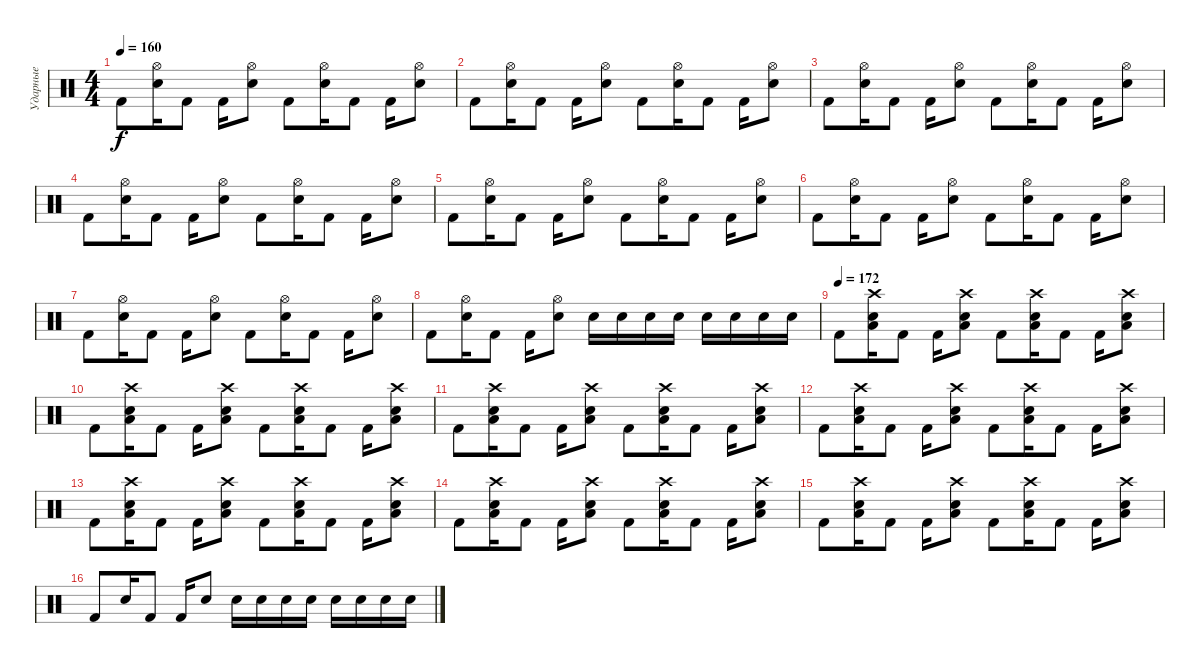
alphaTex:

\track ("Ударные" "Ударные") {instrument percussion}
\staff {score}
\articulation defaults
\ts (4 4)
\tempo 160
\clef neutral
\ks c "Kick (hit) 2".8{dy f}
("Hi-Hat (open)" "Electric Snare (hit)").16 "Kick (hit) 2".8 "Kick (hit) 2".16 ("Hi-Hat (open)" "Electric Snare (hit)").8 "Kick (hit) 2".8 ("Hi-Hat (open)" "Electric Snare (hit)").16 "Kick (hit) 2".8 "Kick (hit) 2".16 ("Hi-Hat (open)" "Electric Snare (hit)").8 |
"Kick (hit) 2".8 ("Hi-Hat (open)" "Electric Snare (hit)").16 "Kick (hit) 2".8 "Kick (hit) 2".16 ("Hi-Hat (open)" "Electric Snare (hit)").8 "Kick (hit) 2".8 ("Hi-Hat (open)" "Electric Snare (hit)").16 "Kick (hit) 2".8 "Kick (hit) 2".16 ("Hi-Hat (open)" "Electric Snare (hit)").8 |
"Kick (hit) 2".8 ("Hi-Hat (open)" "Electric Snare (hit)").16 "Kick (hit) 2".8 "Kick (hit) 2".16 ("Hi-Hat (open)" "Electric Snare (hit)").8 "Kick (hit) 2".8 ("Hi-Hat (open)" "Electric Snare (hit)").16 "Kick (hit) 2".8 "Kick (hit) 2".16 ("Hi-Hat (open)" "Electric Snare (hit)").8 |
"Kick (hit) 2".8 ("Hi-Hat (open)" "Electric Snare (hit)").16 "Kick (hit) 2".8 "Kick (hit) 2".16 ("Hi-Hat (open)" "Electric Snare (hit)").8 "Kick (hit) 2".8 ("Hi-Hat (open)" "Electric Snare (hit)").16 "Kick (hit) 2".8 "Kick (hit) 2".16 ("Hi-Hat (open)" "Electric Snare (hit)").8 |
"Kick (hit) 2".8 ("Hi-Hat (open)" "Electric Snare (hit)").16 "Kick (hit) 2".8 "Kick (hit) 2".16 ("Hi-Hat (open)" "Electric Snare (hit)").8 "Kick (hit) 2".8 ("Hi-Hat (open)" "Electric Snare (hit)").16 "Kick (hit) 2".8 "Kick (hit) 2".16 ("Hi-Hat (open)" "Electric Snare (hit)").8 |
"Kick (hit) 2".8 ("Hi-Hat (open)" "Electric Snare (hit)").16 "Kick (hit) 2".8 "Kick (hit) 2".16 ("Hi-Hat (open)" "Electric Snare (hit)").8 "Kick (hit) 2".8 ("Hi-Hat (open)" "Electric Snare (hit)").16 "Kick (hit) 2".8 "Kick (hit) 2".16 ("Hi-Hat (open)" "Electric Snare (hit)").8 |
"Kick (hit) 2".8 ("Hi-Hat (open)" "Electric Snare (hit)").16 "Kick (hit) 2".8 "Kick (hit) 2".16 ("Hi-Hat (open)" "Electric Snare (hit)").8 "Kick (hit) 2".8 ("Hi-Hat (open)" "Electric Snare (hit)").16 "Kick (hit) 2".8 "Kick (hit) 2".16 ("Hi-Hat (open)" "Electric Snare (hit)").8 |
"Kick (hit) 2".8 ("Hi-Hat (open)" "Electric Snare (hit)").16 "Kick (hit) 2".8 "Kick (hit) 2".16 ("Hi-Hat (open)" "Electric Snare (hit)").8 "Electric Snare (hit)".16 "Electric Snare (hit)".16 "Electric Snare (hit)".16 "Electric Snare (hit)".16 "Electric Snare (hit)".16 "Electric Snare (hit)".16 "Electric Snare (hit)".16 "Electric Snare (hit)".16 |
\tempo (172)
"Kick (hit) 2".8 ("Low Floor Tom (hit)" "Crash high (hit)" "Electric Snare (hit)").16 "Kick (hit) 2".8 "Kick (hit) 2".16 ("Low Floor Tom (hit)" "Crash high (hit)" "Electric Snare (hit)").8 "Kick (hit) 2".8 ("Low Floor Tom (hit)" "Crash high (hit)" "Electric Snare (hit)").16 "Kick (hit) 2".8 "Kick (hit) 2".16 ("Low Floor Tom (hit)" "Crash high (hit)" "Electric Snare (hit)").8 |
"Kick (hit) 2".8 ("Low Floor Tom (hit)" "Crash high (hit)" "Electric Snare (hit)").16 "Kick (hit) 2".8 "Kick (hit) 2".16 ("Low Floor Tom (hit)" "Crash high (hit)" "Electric Snare (hit)").8 "Kick (hit) 2".8 ("Low Floor Tom (hit)" "Crash high (hit)" "Electric Snare (hit)").16 "Kick (hit) 2".8 "Kick (hit) 2".16 ("Low Floor Tom (hit)" "Crash high (hit)" "Electric Snare (hit)").8 |
"Kick (hit) 2".8 ("Low Floor Tom (hit)" "Crash high (hit)" "Electric Snare (hit)").16 "Kick (hit) 2".8 "Kick (hit) 2".16 ("Low Floor Tom (hit)" "Crash high (hit)" "Electric Snare (hit)").8 "Kick (hit) 2".8 ("Low Floor Tom (hit)" "Crash high (hit)" "Electric Snare (hit)").16 "Kick (hit) 2".8 "Kick (hit) 2".16 ("Low Floor Tom (hit)" "Crash high (hit)" "Electric Snare (hit)").8 |
"Kick (hit) 2".8 ("Low Floor Tom (hit)" "Crash high (hit)" "Electric Snare (hit)").16 "Kick (hit) 2".8 "Kick (hit) 2".16 ("Low Floor Tom (hit)" "Crash high (hit)" "Electric Snare (hit)").8 "Kick (hit) 2".8 ("Low Floor Tom (hit)" "Crash high (hit)" "Electric Snare (hit)").16 "Kick (hit) 2".8 "Kick (hit) 2".16 ("Low Floor Tom (hit)" "Crash high (hit)" "Electric Snare (hit)").8 |
"Kick (hit) 2".8 ("Low Floor Tom (hit)" "Crash high (hit)" "Electric Snare (hit)").16 "Kick (hit) 2".8 "Kick (hit) 2".16 ("Low Floor Tom (hit)" "Crash high (hit)" "Electric Snare (hit)").8 "Kick (hit) 2".8 ("Low Floor Tom (hit)" "Crash high (hit)" "Electric Snare (hit)").16 "Kick (hit) 2".8 "Kick (hit) 2".16 ("Low Floor Tom (hit)" "Crash high (hit)" "Electric Snare (hit)").8 |
"Kick (hit) 2".8 ("Low Floor Tom (hit)" "Crash high (hit)" "Electric Snare (hit)").16 "Kick (hit) 2".8 "Kick (hit) 2".16 ("Low Floor Tom (hit)" "Crash high (hit)" "Electric Snare (hit)").8 "Kick (hit) 2".8 ("Low Floor Tom (hit)" "Crash high (hit)" "Electric Snare (hit)").16 "Kick (hit) 2".8 "Kick (hit) 2".16 ("Low Floor Tom (hit)" "Crash high (hit)" "Electric Snare (hit)").8 |
"Kick (hit) 2".8 ("Low Floor Tom (hit)" "Crash high (hit)" "Electric Snare (hit)").16 "Kick (hit) 2".8 "Kick (hit) 2".16 ("Low Floor Tom (hit)" "Crash high (hit)" "Electric Snare (hit)").8 "Kick (hit) 2".8 ("Low Floor Tom (hit)" "Crash high (hit)" "Electric Snare (hit)").16 "Kick (hit) 2".8 "Kick (hit) 2".16 ("Low Floor Tom (hit)" "Crash high (hit)" "Electric Snare (hit)").8 |
"Kick (hit) 2".8 "Electric Snare (hit)".16 "Kick (hit) 2".8 "Kick (hit) 2".16 "Electric Snare (hit)".8 "Electric Snare (hit)".16 "Electric Snare (hit)".16 "Electric Snare (hit)".16 "Electric Snare (hit)".16 "Electric Snare (hit)".16 "Electric Snare (hit)".16 "Electric Snare (hit)".16 "Electric Snare (hit)".16
